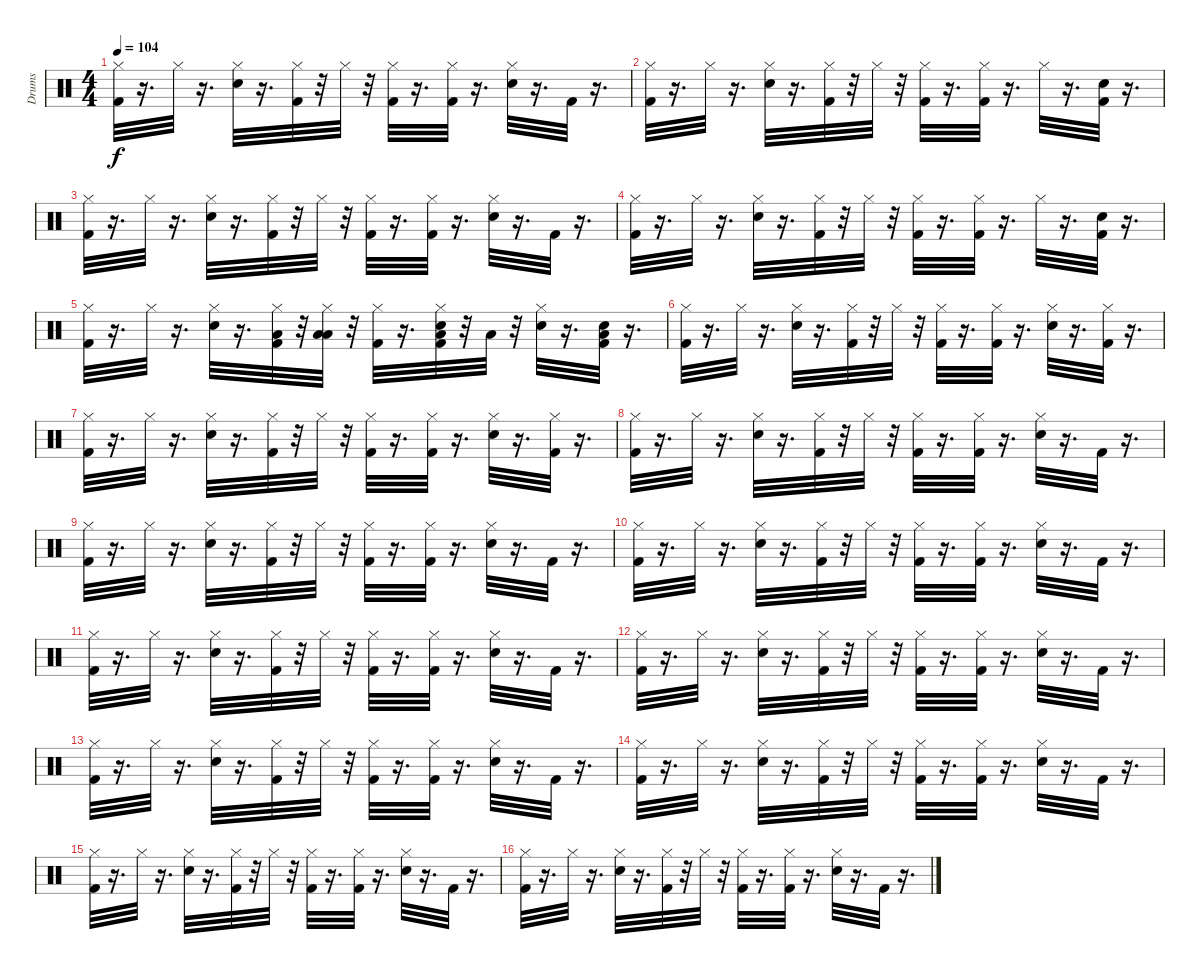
\track ("Drums" "Drums") {instrument percussion}
\staff {score}
\articulation defaults
\ts (4 4)
\tempo 104
\clef neutral
\ks c
("Hi-Hat (closed)" "Kick (hit) 2").32{dy f} r.16{d} "Hi-Hat (closed)".32 r.16{d} ("Hi-Hat (closed)" "Snare (hit) 2").32 r.16{d} ("Hi-Hat (closed)" "Kick (hit) 2").32 r.32 "Hi-Hat (closed)".32 r.32 ("Hi-Hat (closed)" "Kick (hit) 2").32 r.16{d} ("Hi-Hat (closed)" "Kick (hit) 2").32 r.16{d} ("Hi-Hat (closed)" "Snare (hit) 2").32 r.16{d} "Kick (hit) 2".32 r.16{d} |
("Hi-Hat (closed)" "Kick (hit) 2").32 r.16{d} "Hi-Hat (closed)".32 r.16{d} ("Hi-Hat (closed)" "Snare (hit) 2").32 r.16{d} ("Hi-Hat (closed)" "Kick (hit) 2").32 r.32 "Hi-Hat (closed)".32 r.32 ("Hi-Hat (closed)" "Kick (hit) 2").32 r.16{d} ("Hi-Hat (closed)" "Kick (hit) 2").32 r.16{d} "Hi-Hat (closed)".32 r.16{d} ("Kick (hit) 2" "Snare (hit) 2").32 r.16{d} |
("Hi-Hat (closed)" "Kick (hit) 2").32 r.16{d} "Hi-Hat (closed)".32 r.16{d} ("Hi-Hat (closed)" "Snare (hit) 2").32 r.16{d} ("Hi-Hat (closed)" "Kick (hit) 2").32 r.32 "Hi-Hat (closed)".32 r.32 ("Hi-Hat (closed)" "Kick (hit) 2").32 r.16{d} ("Hi-Hat (closed)" "Kick (hit) 2").32 r.16{d} ("Hi-Hat (closed)" "Snare (hit) 2").32 r.16{d} "Kick (hit) 2".32 r.16{d} |
("Hi-Hat (closed)" "Kick (hit) 2").32 r.16{d} "Hi-Hat (closed)".32 r.16{d} ("Hi-Hat (closed)" "Snare (hit) 2").32 r.16{d} ("Hi-Hat (closed)" "Kick (hit) 2").32 r.32 "Hi-Hat (closed)".32 r.32 ("Hi-Hat (closed)" "Kick (hit) 2").32 r.16{d} ("Hi-Hat (closed)" "Kick (hit) 2").32 r.16{d} "Hi-Hat (closed)".32 r.16{d} ("Kick (hit) 2" "Snare (hit) 2").32 r.16{d} |
("Hi-Hat (closed)" "Kick (hit) 2").32 r.16{d} "Hi-Hat (closed)".32 r.16{d} ("Hi-Hat (closed)" "Snare (hit) 2").32 r.16{d} ("Low Floor Tom (hit)" "Hi-Hat (closed)" "Kick (hit) 2").32 r.32 ("Low Floor Tom (hit)" "Low Floor Tom (hit)" "Hi-Hat (closed)").32 r.32 ("Hi-Hat (closed)" "Kick (hit) 2").32 r.16{d} ("Low Floor Tom (hit)" "Snare (hit) 2" "Hi-Hat (closed)" "Kick (hit) 2").32 r.32 "Low Floor Tom (hit)".32 r.32 ("Hi-Hat (closed)" "Snare (hit) 2").32 r.16{d} ("Low Floor Tom (hit)" "Snare (hit) 2" "Kick (hit) 2").32 r.16{d} |
("Hi-Hat (closed)" "Kick (hit) 2").32 r.16{d} "Hi-Hat (closed)".32 r.16{d} ("Hi-Hat (closed)" "Snare (hit) 2").32 r.16{d} ("Hi-Hat (closed)" "Kick (hit) 2").32 r.32 "Hi-Hat (closed)".32 r.32 ("Hi-Hat (closed)" "Kick (hit) 2").32 r.16{d} ("Hi-Hat (closed)" "Kick (hit) 2").32 r.16{d} ("Hi-Hat (closed)" "Snare (hit) 2").32 r.16{d} ("Hi-Hat (closed)" "Kick (hit) 2").32 r.16{d} |
("Hi-Hat (closed)" "Kick (hit) 2").32 r.16{d} "Hi-Hat (closed)".32 r.16{d} ("Hi-Hat (closed)" "Snare (hit) 2").32 r.16{d} ("Hi-Hat (closed)" "Kick (hit) 2").32 r.32 "Hi-Hat (closed)".32 r.32 ("Hi-Hat (closed)" "Kick (hit) 2").32 r.16{d} ("Hi-Hat (closed)" "Kick (hit) 2").32 r.16{d} ("Hi-Hat (closed)" "Snare (hit) 2").32 r.16{d} ("Hi-Hat (closed)" "Kick (hit) 2").32 r.16{d} |
("Hi-Hat (closed)" "Kick (hit) 2").32 r.16{d} "Hi-Hat (closed)".32 r.16{d} ("Hi-Hat (closed)" "Snare (hit) 2").32 r.16{d} ("Hi-Hat (closed)" "Kick (hit) 2").32 r.32 "Hi-Hat (closed)".32 r.32 ("Hi-Hat (closed)" "Kick (hit) 2").32 r.16{d} ("Hi-Hat (closed)" "Kick (hit) 2").32 r.16{d} ("Hi-Hat (closed)" "Snare (hit) 2").32 r.16{d} "Kick (hit) 2".32 r.16{d} |
("Hi-Hat (closed)" "Kick (hit) 2").32 r.16{d} "Hi-Hat (closed)".32 r.16{d} ("Hi-Hat (closed)" "Snare (hit) 2").32 r.16{d} ("Hi-Hat (closed)" "Kick (hit) 2").32 r.32 "Hi-Hat (closed)".32 r.32 ("Hi-Hat (closed)" "Kick (hit) 2").32 r.16{d} ("Hi-Hat (closed)" "Kick (hit) 2").32 r.16{d} ("Hi-Hat (closed)" "Snare (hit) 2").32 r.16{d} "Kick (hit) 2".32 r.16{d} |
("Hi-Hat (closed)" "Kick (hit) 2").32 r.16{d} "Hi-Hat (closed)".32 r.16{d} ("Hi-Hat (closed)" "Snare (hit) 2").32 r.16{d} ("Hi-Hat (closed)" "Kick (hit) 2").32 r.32 "Hi-Hat (closed)".32 r.32 ("Hi-Hat (closed)" "Kick (hit) 2").32 r.16{d} ("Hi-Hat (closed)" "Kick (hit) 2").32 r.16{d} ("Hi-Hat (closed)" "Snare (hit) 2").32 r.16{d} "Kick (hit) 2".32 r.16{d} |
("Hi-Hat (closed)" "Kick (hit) 2").32 r.16{d} "Hi-Hat (closed)".32 r.16{d} ("Hi-Hat (closed)" "Snare (hit) 2").32 r.16{d} ("Hi-Hat (closed)" "Kick (hit) 2").32 r.32 "Hi-Hat (closed)".32 r.32 ("Hi-Hat (closed)" "Kick (hit) 2").32 r.16{d} ("Hi-Hat (closed)" "Kick (hit) 2").32 r.16{d} ("Hi-Hat (closed)" "Snare (hit) 2").32 r.16{d} "Kick (hit) 2".32 r.16{d} |
("Hi-Hat (closed)" "Kick (hit) 2").32 r.16{d} "Hi-Hat (closed)".32 r.16{d} ("Hi-Hat (closed)" "Snare (hit) 2").32 r.16{d} ("Hi-Hat (closed)" "Kick (hit) 2").32 r.32 "Hi-Hat (closed)".32 r.32 ("Hi-Hat (closed)" "Kick (hit) 2").32 r.16{d} ("Hi-Hat (closed)" "Kick (hit) 2").32 r.16{d} ("Hi-Hat (closed)" "Snare (hit) 2").32 r.16{d} "Kick (hit) 2".32 r.16{d} |
("Hi-Hat (closed)" "Kick (hit) 2").32 r.16{d} "Hi-Hat (closed)".32 r.16{d} ("Hi-Hat (closed)" "Snare (hit) 2").32 r.16{d} ("Hi-Hat (closed)" "Kick (hit) 2").32 r.32 "Hi-Hat (closed)".32 r.32 ("Hi-Hat (closed)" "Kick (hit) 2").32 r.16{d} ("Hi-Hat (closed)" "Kick (hit) 2").32 r.16{d} ("Hi-Hat (closed)" "Snare (hit) 2").32 r.16{d} "Kick (hit) 2".32 r.16{d} |
("Hi-Hat (closed)" "Kick (hit) 2").32 r.16{d} "Hi-Hat (closed)".32 r.16{d} ("Hi-Hat (closed)" "Snare (hit) 2").32 r.16{d} ("Hi-Hat (closed)" "Kick (hit) 2").32 r.32 "Hi-Hat (closed)".32 r.32 ("Hi-Hat (closed)" "Kick (hit) 2").32 r.16{d} ("Hi-Hat (closed)" "Kick (hit) 2").32 r.16{d} ("Hi-Hat (closed)" "Snare (hit) 2").32 r.16{d} "Kick (hit) 2".32 r.16{d} |
("Hi-Hat (closed)" "Kick (hit) 2").32 r.16{d} "Hi-Hat (closed)".32 r.16{d} ("Hi-Hat (closed)" "Snare (hit) 2").32 r.16{d} ("Hi-Hat (closed)" "Kick (hit) 2").32 r.32 "Hi-Hat (closed)".32 r.32 ("Hi-Hat (closed)" "Kick (hit) 2").32 r.16{d} ("Hi-Hat (closed)" "Kick (hit) 2").32 r.16{d} ("Hi-Hat (closed)" "Snare (hit) 2").32 r.16{d} "Kick (hit) 2".32 r.16{d} |
("Hi-Hat (closed)" "Kick (hit) 2").32 r.16{d} "Hi-Hat (closed)".32 r.16{d} ("Hi-Hat (closed)" "Snare (hit) 2").32 r.16{d} ("Hi-Hat (closed)" "Kick (hit) 2").32 r.32 "Hi-Hat (closed)".32 r.32 ("Hi-Hat (closed)" "Kick (hit) 2").32 r.16{d} ("Hi-Hat (closed)" "Kick (hit) 2").32 r.16{d} ("Hi-Hat (closed)" "Snare (hit) 2").32 r.16{d} "Kick (hit) 2".32 r.16{d}
